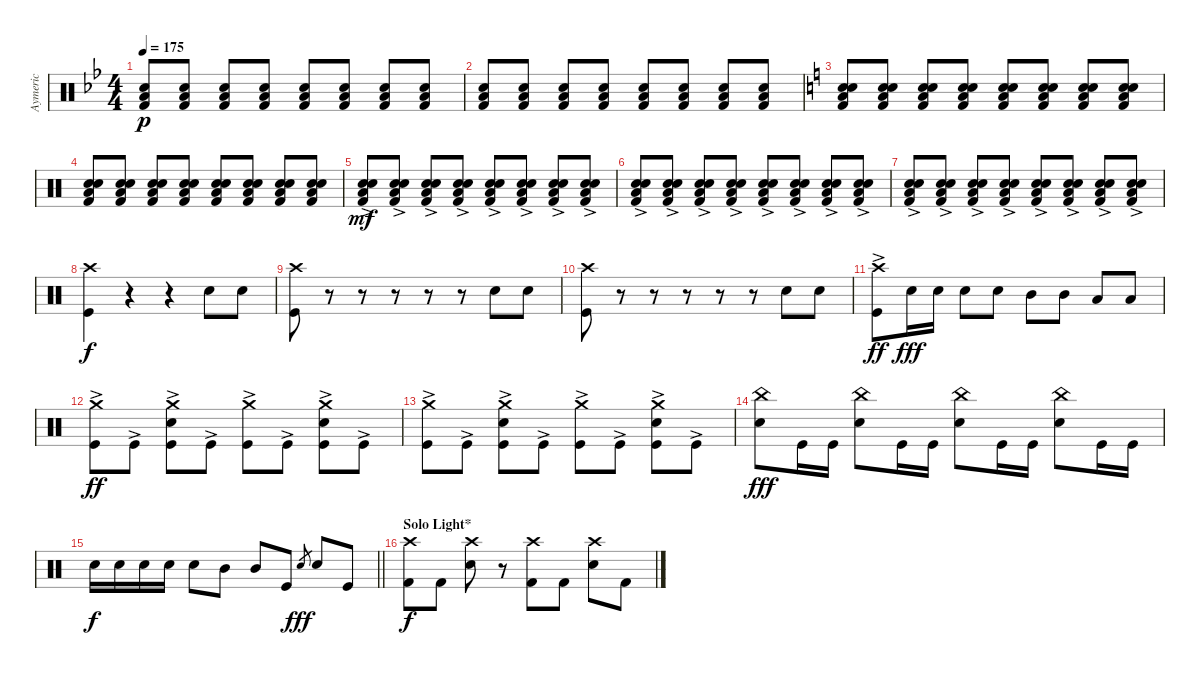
\track ("Aymeric" "Aymeric") {instrument percussion}
\staff {score}
\articulation defaults
\ts (4 4)
\tempo 175
\clef neutral
\ks bb
("Kick (hit) 2" "Electric Snare (hit)" "Low Tom (hit)").8{dy p} ("Kick (hit) 2" "Electric Snare (hit)" "Low Tom (hit)").8 ("Kick (hit) 2" "Electric Snare (hit)" "Low Tom (hit)").8 ("Kick (hit) 2" "Electric Snare (hit)" "Low Tom (hit)").8 ("Kick (hit) 2" "Electric Snare (hit)" "Low Tom (hit)").8 ("Kick (hit) 2" "Electric Snare (hit)" "Low Tom (hit)").8 ("Kick (hit) 2" "Electric Snare (hit)" "Low Tom (hit)").8 ("Kick (hit) 2" "Electric Snare (hit)" "Low Tom (hit)").8 |
("Kick (hit) 2" "Electric Snare (hit)" "Low Tom (hit)").8 ("Kick (hit) 2" "Electric Snare (hit)" "Low Tom (hit)").8 ("Kick (hit) 2" "Electric Snare (hit)" "Low Tom (hit)").8 ("Kick (hit) 2" "Electric Snare (hit)" "Low Tom (hit)").8 ("Kick (hit) 2" "Electric Snare (hit)" "Low Tom (hit)").8 ("Kick (hit) 2" "Electric Snare (hit)" "Low Tom (hit)").8 ("Kick (hit) 2" "Electric Snare (hit)" "Low Tom (hit)").8{volume 8} ("Kick (hit) 2" "Electric Snare (hit)" "Low Tom (hit)").8 |
\ks c
("Snare (hit) 2" "Kick (hit) 2" "Electric Snare (hit)" "Low Tom (hit)").8{volume 15} ("Snare (hit) 2" "Kick (hit) 2" "Electric Snare (hit)" "Low Tom (hit)").8 ("Snare (hit) 2" "Kick (hit) 2" "Electric Snare (hit)" "Low Tom (hit)").8 ("Snare (hit) 2" "Kick (hit) 2" "Electric Snare (hit)" "Low Tom (hit)").8 ("Snare (hit) 2" "Kick (hit) 2" "Electric Snare (hit)" "Low Tom (hit)").8 ("Snare (hit) 2" "Kick (hit) 2" "Electric Snare (hit)" "Low Tom (hit)").8 ("Snare (hit) 2" "Kick (hit) 2" "Electric Snare (hit)" "Low Tom (hit)").8 ("Snare (hit) 2" "Kick (hit) 2" "Electric Snare (hit)" "Low Tom (hit)").8 |
("Snare (hit) 2" "Kick (hit) 2" "Electric Snare (hit)" "Low Tom (hit)").8 ("Snare (hit) 2" "Kick (hit) 2" "Electric Snare (hit)" "Low Tom (hit)").8 ("Snare (hit) 2" "Kick (hit) 2" "Electric Snare (hit)" "Low Tom (hit)").8 ("Snare (hit) 2" "Kick (hit) 2" "Electric Snare (hit)" "Low Tom (hit)").8 ("Snare (hit) 2" "Kick (hit) 2" "Electric Snare (hit)" "Low Tom (hit)").8 ("Snare (hit) 2" "Kick (hit) 2" "Electric Snare (hit)" "Low Tom (hit)").8 ("Snare (hit) 2" "Kick (hit) 2" "Electric Snare (hit)" "Low Tom (hit)").8 ("Snare (hit) 2" "Kick (hit) 2" "Electric Snare (hit)" "Low Tom (hit)").8 |
("Snare (hit) 2"{ac} "Kick (hit) 2"{ac} "Electric Snare (hit)"{ac} "Low Tom (hit)"{ac}).8{dy mf} ("Snare (hit) 2"{ac} "Kick (hit) 2"{ac} "Electric Snare (hit)"{ac} "Low Tom (hit)"{ac}).8 ("Snare (hit) 2"{ac} "Kick (hit) 2"{ac} "Electric Snare (hit)"{ac} "Low Tom (hit)"{ac}).8 ("Snare (hit) 2"{ac} "Kick (hit) 2"{ac} "Electric Snare (hit)"{ac} "Low Tom (hit)"{ac}).8 ("Snare (hit) 2"{ac} "Kick (hit) 2"{ac} "Electric Snare (hit)"{ac} "Low Tom (hit)"{ac}).8 ("Snare (hit) 2"{ac} "Kick (hit) 2"{ac} "Electric Snare (hit)"{ac} "Low Tom (hit)"{ac}).8 ("Snare (hit) 2"{ac} "Kick (hit) 2"{ac} "Electric Snare (hit)"{ac} "Low Tom (hit)"{ac}).8 ("Snare (hit) 2"{ac} "Kick (hit) 2"{ac} "Electric Snare (hit)"{ac} "Low Tom (hit)"{ac}).8 |
("Snare (hit) 2"{ac} "Kick (hit) 2"{ac} "Electric Snare (hit)"{ac} "Low Tom (hit)"{ac}).8 ("Snare (hit) 2"{ac} "Kick (hit) 2"{ac} "Electric Snare (hit)"{ac} "Low Tom (hit)"{ac}).8 ("Snare (hit) 2"{ac} "Kick (hit) 2"{ac} "Electric Snare (hit)"{ac} "Low Tom (hit)"{ac}).8 ("Snare (hit) 2"{ac} "Kick (hit) 2"{ac} "Electric Snare (hit)"{ac} "Low Tom (hit)"{ac}).8 ("Snare (hit) 2"{ac} "Kick (hit) 2"{ac} "Electric Snare (hit)"{ac} "Low Tom (hit)"{ac}).8 ("Snare (hit) 2"{ac} "Kick (hit) 2"{ac} "Electric Snare (hit)"{ac} "Low Tom (hit)"{ac}).8 ("Snare (hit) 2"{ac} "Kick (hit) 2"{ac} "Electric Snare (hit)"{ac} "Low Tom (hit)"{ac}).8 ("Snare (hit) 2"{ac} "Kick (hit) 2"{ac} "Electric Snare (hit)"{ac} "Low Tom (hit)"{ac}).8 |
("Snare (hit) 2"{ac} "Kick (hit) 2"{ac} "Electric Snare (hit)"{ac} "Low Tom (hit)"{ac}).8 ("Snare (hit) 2"{ac} "Kick (hit) 2"{ac} "Electric Snare (hit)"{ac} "Low Tom (hit)"{ac}).8 ("Snare (hit) 2"{ac} "Kick (hit) 2"{ac} "Electric Snare (hit)"{ac} "Low Tom (hit)"{ac}).8 ("Snare (hit) 2"{ac} "Kick (hit) 2"{ac} "Electric Snare (hit)"{ac} "Low Tom (hit)"{ac}).8 ("Snare (hit) 2"{ac} "Kick (hit) 2"{ac} "Electric Snare (hit)"{ac} "Low Tom (hit)"{ac}).8 ("Snare (hit) 2"{ac} "Kick (hit) 2"{ac} "Electric Snare (hit)"{ac} "Low Tom (hit)"{ac}).8 ("Snare (hit) 2"{ac} "Kick (hit) 2"{ac} "Electric Snare (hit)"{ac} "Low Tom (hit)"{ac}).8 ("Snare (hit) 2"{ac} "Kick (hit) 2"{ac} "Electric Snare (hit)"{ac} "Low Tom (hit)"{ac}).8 |
("Kick (hit)" "Crash high (hit)").4{dy f} r.4 r.4 "Snare (hit) 2".8 "Snare (hit) 2".8 |
("Kick (hit)" "Crash high (hit)").8 r.8 r.8 r.8 r.8 r.8 "Snare (hit) 2".8 "Snare (hit) 2".8 |
("Kick (hit)" "Crash high (hit)").8 r.8 r.8 r.8 r.8 r.8 "Snare (hit) 2".8 "Snare (hit) 2".8 |
("Crash high (hit)"{ac} "Kick (hit)").8{dy ff} "Snare (hit) 2".16{dy fff} "Snare (hit) 2".16 "Snare (hit) 2".8 "Snare (hit) 2".8 "Mid Tom (hit)".8 "Mid Tom (hit)".8 "Low Floor Tom (hit)".8 "Low Floor Tom (hit)".8 |
("Kick (hit)"{ac} "Crash medium (hit)"{ac}).8{dy ff} "Kick (hit)"{ac}.8 ("Kick (hit)"{ac} "Snare (hit) 2"{ac} "Crash medium (hit)"{ac}).8 "Kick (hit)"{ac}.8 ("Kick (hit)"{ac} "Crash medium (hit)"{ac}).8 "Kick (hit)"{ac}.8 ("Kick (hit)"{ac} "Snare (hit) 2"{ac} "Crash medium (hit)"{ac}).8 "Kick (hit)"{ac}.8 |
("Kick (hit)"{ac} "Crash medium (hit)"{ac}).8 "Kick (hit)"{ac}.8 ("Kick (hit)"{ac} "Snare (hit) 2"{ac} "Crash medium (hit)"{ac}).8 "Kick (hit)"{ac}.8 ("Kick (hit)"{ac} "Crash medium (hit)"{ac}).8 "Kick (hit)"{ac}.8 ("Kick (hit)"{ac} "Snare (hit) 2"{ac} "Crash medium (hit)"{ac}).8 "Kick (hit)"{ac}.8 |
("China (hit)" "Snare (hit) 2").8{dy fff} "Kick (hit)".16 "Kick (hit)".16 ("China (hit)" "Snare (hit) 2").8 "Kick (hit)".16 "Kick (hit)".16 ("China (hit)" "Snare (hit) 2").8 "Kick (hit)".16 "Kick (hit)".16 ("China (hit)" "Snare (hit) 2").8 "Kick (hit)".16 "Kick (hit)".16 |
\barLineRight lightlight "Snare (hit) 2".16{dy f} "Snare (hit) 2".16 "Snare (hit) 2".16 "Snare (hit) 2".16 "Snare (hit) 2".8 "Mid Tom (hit)".8 "Mid Tom (hit)".8 "Kick (hit)".8 "Snare (hit) 2".8{gr dy fff} "Snare (hit) 2".8 "Kick (hit)".8
|
\section ("" "Solo Light*")
("Crash high (hit)" "Kick (hit) 2").8{dy f} "Kick (hit) 2".8 ("Crash high (hit)" "Snare (hit) 2").8 r.8 ("Crash high (hit)" "Kick (hit) 2").8 "Kick (hit) 2".8 ("Crash high (hit)" "Snare (hit) 2").8 "Kick (hit) 2".8
